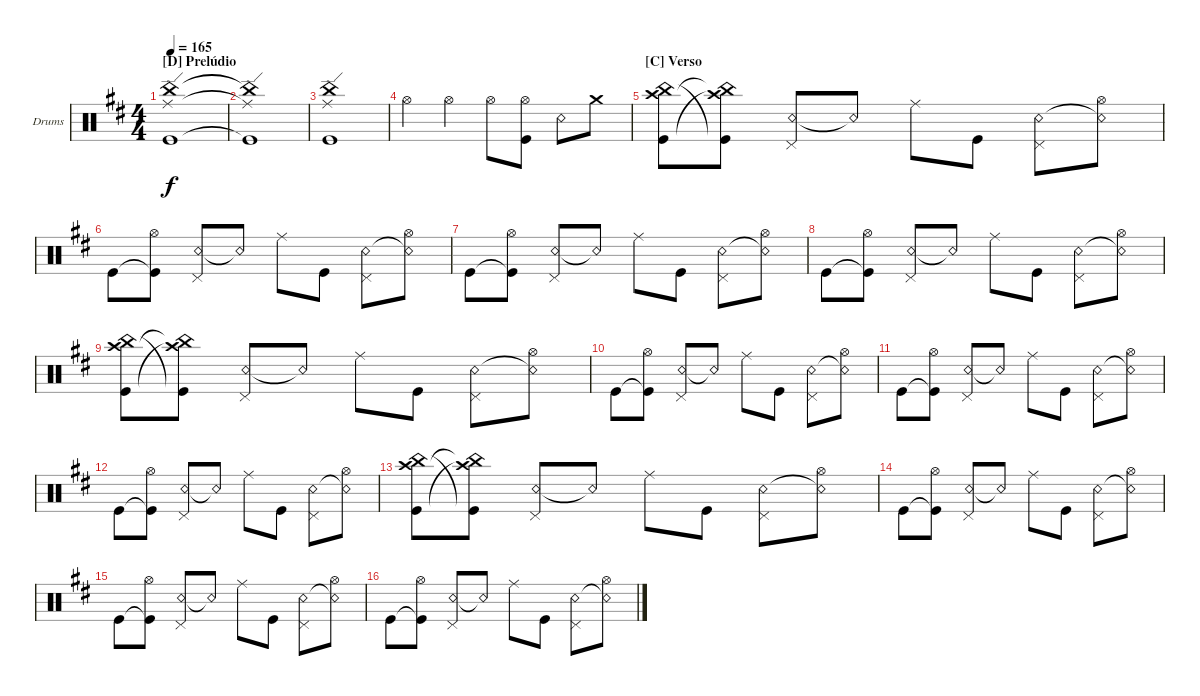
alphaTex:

\defaultSystemsLayout 4
\bracketExtendMode groupsimilarinstruments
\firstSystemTrackNameOrientation horizontal
\otherSystemsTrackNameOrientation horizontal
\track ("Bateria" "Drums") {multiBarRest instrument percussion}
\staff {score}
\articulation defaults
\ts (4 4)
\section ("D" "Prelúdio")
\tempo 165
\clef neutral
\ks d
("Kick (hit)" "China (hit)" "Ride (edge)").1{dy f} |
("Kick (hit)"{t} "China (hit)"{t} "Ride (edge)"{t}).1 |
("Kick (hit)" "China (hit)" "Ride (edge)").1 |
"Hi-Hat (open)".4 "Hi-Hat (open)".4 "Hi-Hat (open)".8 ("Kick (hit)" "Hi-Hat (open)").8 "Snare (rim shot)".8 "Crash medium (hit)".8 |
\section ("C" "Verso")
("China (hit)" "Crash high (hit)" "Kick (hit)").8 ("Kick (hit)"{t} "China (hit)"{t} "Crash high (hit)"{t}).8 ("Snare (rim shot)" "Pedal Hi-Hat (hit)").8 "Snare (rim shot)"{t}.8 "Ride (middle)".8 "Kick (hit)".8 ("Snare (rim shot)" "Pedal Hi-Hat (hit)").8 ("Snare (rim shot)"{t} "Hi-Hat (open)").8 |
"Kick (hit)".8 ("Kick (hit)"{t} "Hi-Hat (open)").8 ("Snare (rim shot)" "Pedal Hi-Hat (hit)").8 "Snare (rim shot)"{t}.8 "Ride (middle)".8 "Kick (hit)".8 ("Snare (rim shot)" "Pedal Hi-Hat (hit)").8 ("Snare (rim shot)"{t} "Hi-Hat (open)").8 |
"Kick (hit)".8 ("Kick (hit)"{t} "Hi-Hat (open)").8 ("Snare (rim shot)" "Pedal Hi-Hat (hit)").8 "Snare (rim shot)"{t}.8 "Ride (middle)".8 "Kick (hit)".8 ("Snare (rim shot)" "Pedal Hi-Hat (hit)").8 ("Snare (rim shot)"{t} "Hi-Hat (open)").8 |
"Kick (hit)".8 ("Kick (hit)"{t} "Hi-Hat (open)").8 ("Snare (rim shot)" "Pedal Hi-Hat (hit)").8 "Snare (rim shot)"{t}.8 "Ride (middle)".8 "Kick (hit)".8 ("Snare (rim shot)" "Pedal Hi-Hat (hit)").8 ("Snare (rim shot)"{t} "Hi-Hat (open)").8 |
("China (hit)" "Crash high (hit)" "Kick (hit)").8 ("Kick (hit)"{t} "China (hit)"{t} "Crash high (hit)"{t}).8 ("Snare (rim shot)" "Pedal Hi-Hat (hit)").8 "Snare (rim shot)"{t}.8 "Ride (middle)".8 "Kick (hit)".8 ("Snare (rim shot)" "Pedal Hi-Hat (hit)").8 ("Snare (rim shot)"{t} "Hi-Hat (open)").8 |
"Kick (hit)".8 ("Kick (hit)"{t} "Hi-Hat (open)").8 ("Snare (rim shot)" "Pedal Hi-Hat (hit)").8 "Snare (rim shot)"{t}.8 "Ride (middle)".8 "Kick (hit)".8 ("Snare (rim shot)" "Pedal Hi-Hat (hit)").8 ("Snare (rim shot)"{t} "Hi-Hat (open)").8 |
"Kick (hit)".8 ("Kick (hit)"{t} "Hi-Hat (open)").8 ("Snare (rim shot)" "Pedal Hi-Hat (hit)").8 "Snare (rim shot)"{t}.8 "Ride (middle)".8 "Kick (hit)".8 ("Snare (rim shot)" "Pedal Hi-Hat (hit)").8 ("Snare (rim shot)"{t} "Hi-Hat (open)").8 |
"Kick (hit)".8 ("Kick (hit)"{t} "Hi-Hat (open)").8 ("Snare (rim shot)" "Pedal Hi-Hat (hit)").8 "Snare (rim shot)"{t}.8 "Ride (middle)".8 "Kick (hit)".8 ("Snare (rim shot)" "Pedal Hi-Hat (hit)").8 ("Snare (rim shot)"{t} "Hi-Hat (open)").8 |
("China (hit)" "Crash high (hit)" "Kick (hit)").8 ("Kick (hit)"{t} "China (hit)"{t} "Crash high (hit)"{t}).8 ("Snare (rim shot)" "Pedal Hi-Hat (hit)").8 "Snare (rim shot)"{t}.8 "Ride (middle)".8 "Kick (hit)".8 ("Snare (rim shot)" "Pedal Hi-Hat (hit)").8 ("Snare (rim shot)"{t} "Hi-Hat (open)").8 |
"Kick (hit)".8 ("Kick (hit)"{t} "Hi-Hat (open)").8 ("Snare (rim shot)" "Pedal Hi-Hat (hit)").8 "Snare (rim shot)"{t}.8 "Ride (middle)".8 "Kick (hit)".8 ("Snare (rim shot)" "Pedal Hi-Hat (hit)").8 ("Snare (rim shot)"{t} "Hi-Hat (open)").8 |
"Kick (hit)".8 ("Kick (hit)"{t} "Hi-Hat (open)").8 ("Snare (rim shot)" "Pedal Hi-Hat (hit)").8 "Snare (rim shot)"{t}.8 "Ride (middle)".8 "Kick (hit)".8 ("Snare (rim shot)" "Pedal Hi-Hat (hit)").8 ("Snare (rim shot)"{t} "Hi-Hat (open)").8 |
"Kick (hit)".8 ("Kick (hit)"{t} "Hi-Hat (open)").8 ("Snare (rim shot)" "Pedal Hi-Hat (hit)").8 "Snare (rim shot)"{t}.8 "Ride (middle)".8 "Kick (hit)".8 ("Snare (rim shot)" "Pedal Hi-Hat (hit)").8 ("Snare (rim shot)"{t} "Hi-Hat (open)").8
